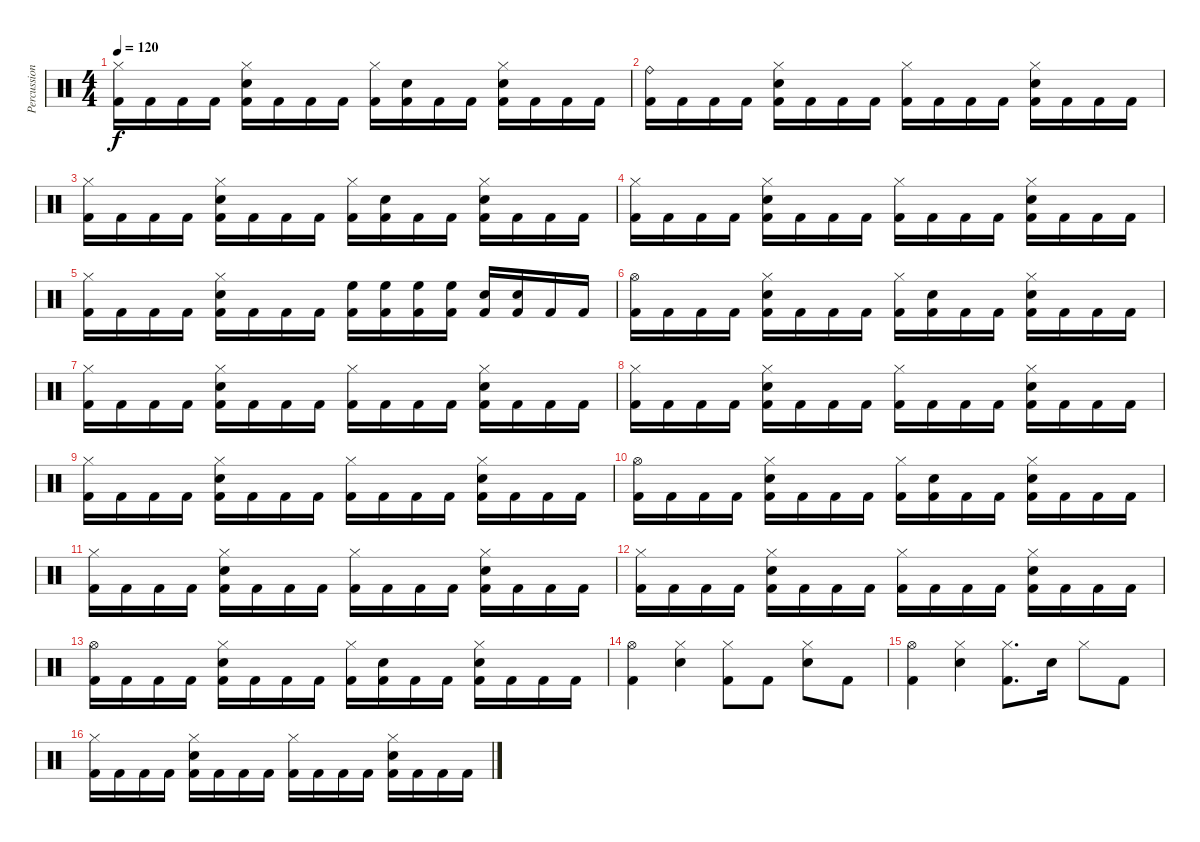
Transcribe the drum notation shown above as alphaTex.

\track ("Percussions" "Percussion") {instrument percussion}
\staff {score}
\articulation defaults
\ts (4 4)
\tempo 120
\clef neutral
\ks c
("Hi-Hat (closed)" "Kick (hit) 2").16{dy f} "Kick (hit) 2".16 "Kick (hit) 2".16 "Kick (hit) 2".16 ("Hi-Hat (closed)" "Snare (hit) 2" "Kick (hit) 2").16 "Kick (hit) 2".16 "Kick (hit) 2".16 "Kick (hit) 2".16 ("Hi-Hat (closed)" "Kick (hit) 2").16 ("Snare (hit) 2" "Kick (hit) 2").16 "Kick (hit) 2".16 "Kick (hit) 2".16 ("Hi-Hat (closed)" "Snare (hit) 2" "Kick (hit) 2").16 "Kick (hit) 2".16 "Kick (hit) 2".16 "Kick (hit) 2".16 |
("Ride (bell)" "Kick (hit) 2").16 "Kick (hit) 2".16 "Kick (hit) 2".16 "Kick (hit) 2".16 ("Hi-Hat (closed)" "Snare (hit) 2" "Kick (hit) 2").16 "Kick (hit) 2".16 "Kick (hit) 2".16 "Kick (hit) 2".16 ("Hi-Hat (closed)" "Kick (hit) 2").16 "Kick (hit) 2".16 "Kick (hit) 2".16 "Kick (hit) 2".16 ("Hi-Hat (closed)" "Snare (hit) 2" "Kick (hit) 2").16 "Kick (hit) 2".16 "Kick (hit) 2".16 "Kick (hit) 2".16 |
("Hi-Hat (closed)" "Kick (hit) 2").16 "Kick (hit) 2".16 "Kick (hit) 2".16 "Kick (hit) 2".16 ("Hi-Hat (closed)" "Snare (hit) 2" "Kick (hit) 2").16 "Kick (hit) 2".16 "Kick (hit) 2".16 "Kick (hit) 2".16 ("Hi-Hat (closed)" "Kick (hit) 2").16 ("Snare (hit) 2" "Kick (hit) 2").16 "Kick (hit) 2".16 "Kick (hit) 2".16 ("Hi-Hat (closed)" "Snare (hit) 2" "Kick (hit) 2").16 "Kick (hit) 2".16 "Kick (hit) 2".16 "Kick (hit) 2".16 |
("Hi-Hat (closed)" "Kick (hit) 2").16 "Kick (hit) 2".16 "Kick (hit) 2".16 "Kick (hit) 2".16 ("Hi-Hat (closed)" "Snare (hit) 2" "Kick (hit) 2").16 "Kick (hit) 2".16 "Kick (hit) 2".16 "Kick (hit) 2".16 ("Hi-Hat (closed)" "Kick (hit) 2").16 "Kick (hit) 2".16 "Kick (hit) 2".16 "Kick (hit) 2".16 ("Hi-Hat (closed)" "Snare (hit) 2" "Kick (hit) 2").16 "Kick (hit) 2".16 "Kick (hit) 2".16 "Kick (hit) 2".16 |
("Hi-Hat (closed)" "Kick (hit) 2").16 "Kick (hit) 2".16 "Kick (hit) 2".16 "Kick (hit) 2".16 ("Hi-Hat (closed)" "Snare (hit) 2" "Kick (hit) 2").16 "Kick (hit) 2".16 "Kick (hit) 2".16 "Kick (hit) 2".16 ("High Floor Tom (hit)" "Kick (hit) 2").16 ("High Floor Tom (hit)" "Kick (hit) 2").16 ("High Floor Tom (hit)" "Kick (hit) 2").16 ("High Floor Tom (hit)" "Kick (hit) 2").16 ("Snare (hit) 2" "Kick (hit) 2").16 ("Snare (hit) 2" "Kick (hit) 2").16 "Kick (hit) 2".16 "Kick (hit) 2".16 |
("Hi-Hat (open)" "Kick (hit) 2").16 "Kick (hit) 2".16 "Kick (hit) 2".16 "Kick (hit) 2".16 ("Hi-Hat (closed)" "Snare (hit) 2" "Kick (hit) 2").16 "Kick (hit) 2".16 "Kick (hit) 2".16 "Kick (hit) 2".16 ("Hi-Hat (closed)" "Kick (hit) 2").16 ("Snare (hit) 2" "Kick (hit) 2").16 "Kick (hit) 2".16 "Kick (hit) 2".16 ("Hi-Hat (closed)" "Snare (hit) 2" "Kick (hit) 2").16 "Kick (hit) 2".16 "Kick (hit) 2".16 "Kick (hit) 2".16 |
("Hi-Hat (closed)" "Kick (hit) 2").16 "Kick (hit) 2".16 "Kick (hit) 2".16 "Kick (hit) 2".16 ("Hi-Hat (closed)" "Snare (hit) 2" "Kick (hit) 2").16 "Kick (hit) 2".16 "Kick (hit) 2".16 "Kick (hit) 2".16 ("Hi-Hat (closed)" "Kick (hit) 2").16 "Kick (hit) 2".16 "Kick (hit) 2".16 "Kick (hit) 2".16 ("Hi-Hat (closed)" "Snare (hit) 2" "Kick (hit) 2").16 "Kick (hit) 2".16 "Kick (hit) 2".16 "Kick (hit) 2".16 |
("Hi-Hat (closed)" "Kick (hit) 2").16 "Kick (hit) 2".16 "Kick (hit) 2".16 "Kick (hit) 2".16 ("Hi-Hat (closed)" "Snare (hit) 2" "Kick (hit) 2").16 "Kick (hit) 2".16 "Kick (hit) 2".16 "Kick (hit) 2".16 ("Hi-Hat (closed)" "Kick (hit) 2").16 "Kick (hit) 2".16 "Kick (hit) 2".16 "Kick (hit) 2".16 ("Hi-Hat (closed)" "Snare (hit) 2" "Kick (hit) 2").16 "Kick (hit) 2".16 "Kick (hit) 2".16 "Kick (hit) 2".16 |
("Hi-Hat (closed)" "Kick (hit) 2").16 "Kick (hit) 2".16 "Kick (hit) 2".16 "Kick (hit) 2".16 ("Hi-Hat (closed)" "Snare (hit) 2" "Kick (hit) 2").16 "Kick (hit) 2".16 "Kick (hit) 2".16 "Kick (hit) 2".16 ("Hi-Hat (closed)" "Kick (hit) 2").16 "Kick (hit) 2".16 "Kick (hit) 2".16 "Kick (hit) 2".16 ("Hi-Hat (closed)" "Snare (hit) 2" "Kick (hit) 2").16 "Kick (hit) 2".16 "Kick (hit) 2".16 "Kick (hit) 2".16 |
("Hi-Hat (open)" "Kick (hit) 2").16 "Kick (hit) 2".16 "Kick (hit) 2".16 "Kick (hit) 2".16 ("Hi-Hat (closed)" "Snare (hit) 2" "Kick (hit) 2").16 "Kick (hit) 2".16 "Kick (hit) 2".16 "Kick (hit) 2".16 ("Hi-Hat (closed)" "Kick (hit) 2").16 ("Snare (hit) 2" "Kick (hit) 2").16 "Kick (hit) 2".16 "Kick (hit) 2".16 ("Hi-Hat (closed)" "Snare (hit) 2" "Kick (hit) 2").16 "Kick (hit) 2".16 "Kick (hit) 2".16 "Kick (hit) 2".16 |
("Hi-Hat (closed)" "Kick (hit) 2").16 "Kick (hit) 2".16 "Kick (hit) 2".16 "Kick (hit) 2".16 ("Hi-Hat (closed)" "Snare (hit) 2" "Kick (hit) 2").16 "Kick (hit) 2".16 "Kick (hit) 2".16 "Kick (hit) 2".16 ("Hi-Hat (closed)" "Kick (hit) 2").16 "Kick (hit) 2".16 "Kick (hit) 2".16 "Kick (hit) 2".16 ("Hi-Hat (closed)" "Snare (hit) 2" "Kick (hit) 2").16 "Kick (hit) 2".16 "Kick (hit) 2".16 "Kick (hit) 2".16 |
("Hi-Hat (closed)" "Kick (hit) 2").16 "Kick (hit) 2".16 "Kick (hit) 2".16 "Kick (hit) 2".16 ("Hi-Hat (closed)" "Snare (hit) 2" "Kick (hit) 2").16 "Kick (hit) 2".16 "Kick (hit) 2".16 "Kick (hit) 2".16 ("Hi-Hat (closed)" "Kick (hit) 2").16 "Kick (hit) 2".16 "Kick (hit) 2".16 "Kick (hit) 2".16 ("Hi-Hat (closed)" "Snare (hit) 2" "Kick (hit) 2").16 "Kick (hit) 2".16 "Kick (hit) 2".16 "Kick (hit) 2".16 |
("Hi-Hat (open)" "Kick (hit) 2").16 "Kick (hit) 2".16 "Kick (hit) 2".16 "Kick (hit) 2".16 ("Hi-Hat (closed)" "Snare (hit) 2" "Kick (hit) 2").16 "Kick (hit) 2".16 "Kick (hit) 2".16 "Kick (hit) 2".16 ("Hi-Hat (closed)" "Kick (hit) 2").16 ("Snare (hit) 2" "Kick (hit) 2").16 "Kick (hit) 2".16 "Kick (hit) 2".16 ("Hi-Hat (closed)" "Snare (hit) 2" "Kick (hit) 2").16 "Kick (hit) 2".16 "Kick (hit) 2".16 "Kick (hit) 2".16 |
("Hi-Hat (open)" "Kick (hit) 2").4 ("Hi-Hat (closed)" "Snare (hit) 2").4 ("Hi-Hat (closed)" "Kick (hit) 2").8 "Kick (hit) 2".8 ("Hi-Hat (closed)" "Snare (hit) 2").8 "Kick (hit) 2".8 |
("Hi-Hat (open)" "Kick (hit) 2").4 ("Hi-Hat (closed)" "Snare (hit) 2").4 ("Hi-Hat (closed)" "Kick (hit) 2").8{d} "Snare (hit) 2".16 "Hi-Hat (closed)".8 "Kick (hit) 2".8 |
("Hi-Hat (closed)" "Kick (hit) 2").16 "Kick (hit) 2".16 "Kick (hit) 2".16 "Kick (hit) 2".16 ("Hi-Hat (closed)" "Snare (hit) 2" "Kick (hit) 2").16 "Kick (hit) 2".16 "Kick (hit) 2".16 "Kick (hit) 2".16 ("Hi-Hat (closed)" "Kick (hit) 2").16 "Kick (hit) 2".16 "Kick (hit) 2".16 "Kick (hit) 2".16 ("Hi-Hat (closed)" "Snare (hit) 2" "Kick (hit) 2").16 "Kick (hit) 2".16 "Kick (hit) 2".16 "Kick (hit) 2".16
